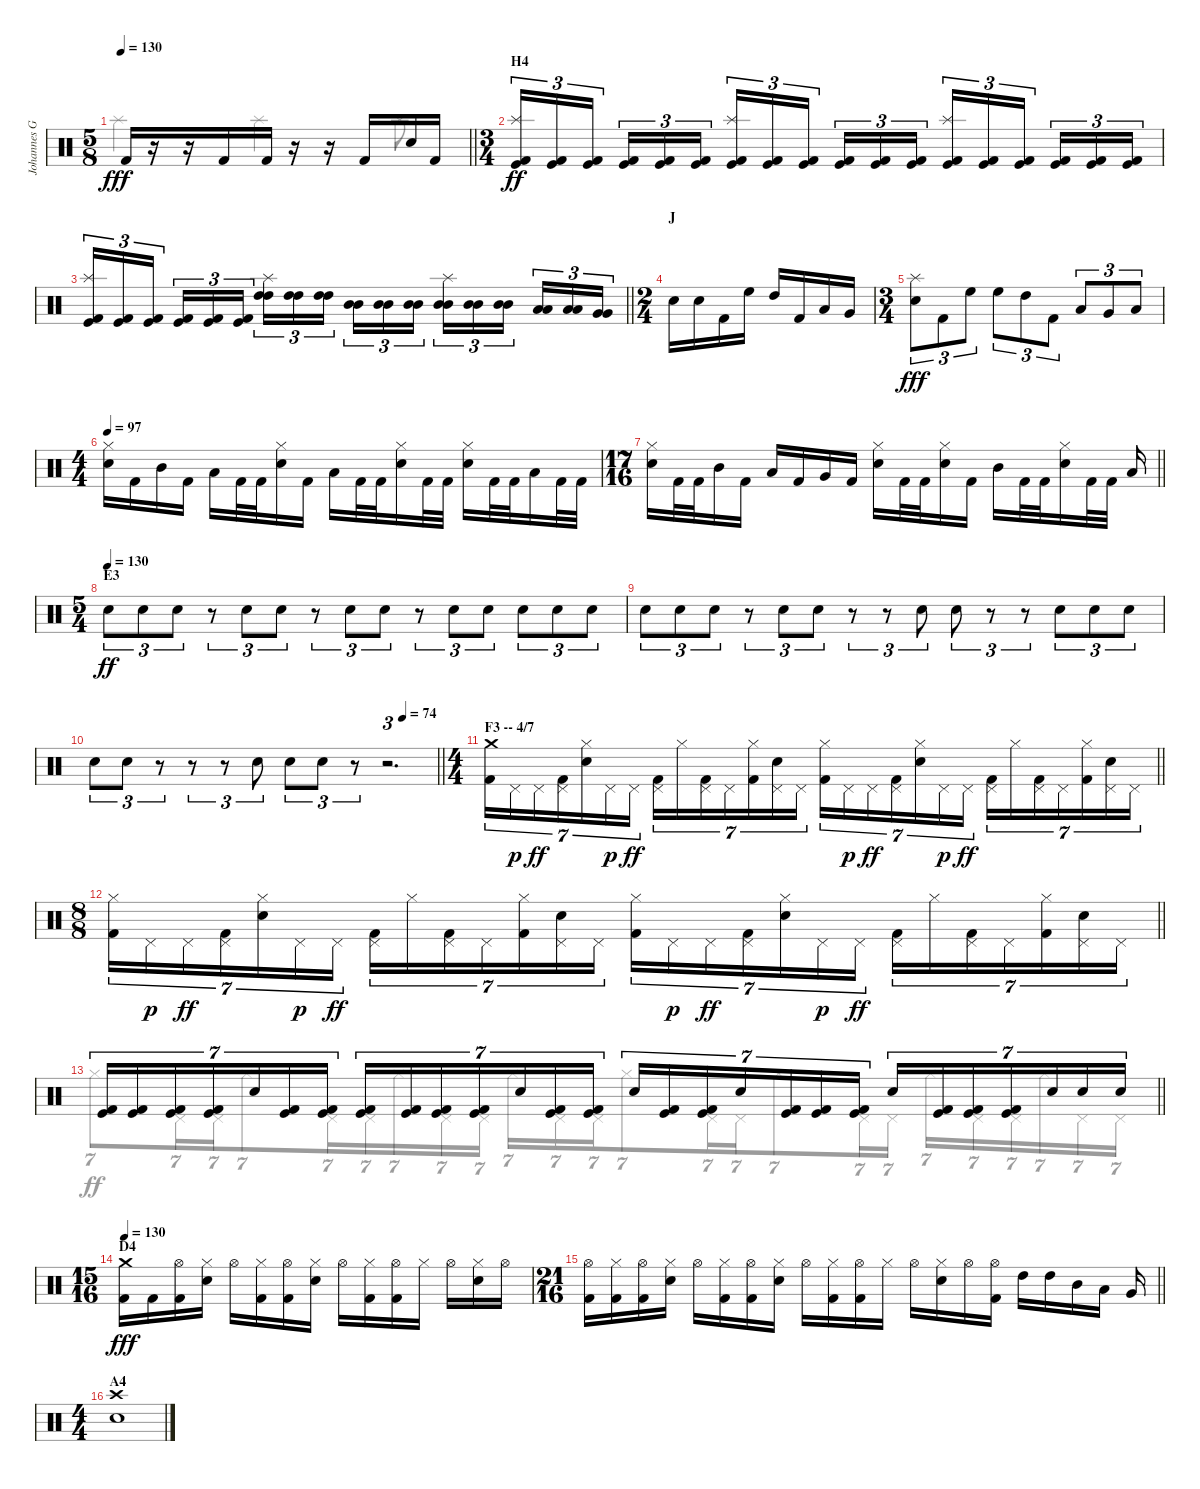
\track ("Johannes Grossmann" "Johannes G") {instrument percussion}
\staff {score}
\articulation defaults
\voice
\ts (5 8)
\tempo 130
\clef neutral
\barLineRight lightlight
\ks c "Kick (hit) 2".16{dy fff}
r.16 r.16 "Kick (hit) 2".16 "Kick (hit) 2".16 r.16 r.16 "Kick (hit) 2".16 "Snare (hit) 2".16 "Kick (hit) 2".16 |
\ts (3 4)
\section ("" "H4")
("Splash (hit)" "Kick (hit)" "Kick (hit) 2").16{tu (3 2) dy ff} ("Kick (hit)" "Kick (hit) 2").16{tu (3 2)} ("Kick (hit)" "Kick (hit) 2").16{tu (3 2) beam splitsecondary} ("Kick (hit)" "Kick (hit) 2").16{tu (3 2)} ("Kick (hit)" "Kick (hit) 2").16{tu (3 2)} ("Kick (hit)" "Kick (hit) 2").16{tu (3 2)} ("Splash (hit)" "Kick (hit)" "Kick (hit) 2").16{tu (3 2)} ("Kick (hit)" "Kick (hit) 2").16{tu (3 2)} ("Kick (hit)" "Kick (hit) 2").16{tu (3 2) beam splitsecondary} ("Kick (hit)" "Kick (hit) 2").16{tu (3 2)} ("Kick (hit)" "Kick (hit) 2").16{tu (3 2)} ("Kick (hit)" "Kick (hit) 2").16{tu (3 2)} ("Splash (hit)" "Kick (hit)" "Kick (hit) 2").16{tu (3 2)} ("Kick (hit)" "Kick (hit) 2").16{tu (3 2)} ("Kick (hit)" "Kick (hit) 2").16{tu (3 2) beam splitsecondary} ("Kick (hit)" "Kick (hit) 2").16{tu (3 2)} ("Kick (hit)" "Kick (hit) 2").16{tu (3 2)} ("Kick (hit)" "Kick (hit) 2").16{tu (3 2)} |
\barLineRight lightlight
("Splash (hit)" "Kick (hit)" "Kick (hit) 2").16{tu (3 2)} ("Kick (hit)" "Kick (hit) 2").16{tu (3 2)} ("Kick (hit)" "Kick (hit) 2").16{tu (3 2) beam splitsecondary} ("Kick (hit)" "Kick (hit) 2").16{tu (3 2)} ("Kick (hit)" "Kick (hit) 2").16{tu (3 2)} ("Kick (hit)" "Kick (hit) 2").16{tu (3 2)} ("Splash (hit)" "High Tom (hit)" "High Tom (hit)").16{tu (3 2)} ("High Tom (hit)" "High Tom (hit)").16{tu (3 2)} ("High Tom (hit)" "High Tom (hit)").16{tu (3 2) beam splitsecondary} ("Mid Tom (hit)" "Mid Tom (hit)").16{tu (3 2)} ("Mid Tom (hit)" "Mid Tom (hit)").16{tu (3 2)} ("Mid Tom (hit)" "Mid Tom (hit)").16{tu (3 2)} ("Splash (hit)" "Mid Tom (hit)" "Mid Tom (hit)").16{tu (3 2)} ("Mid Tom (hit)" "Mid Tom (hit)").16{tu (3 2)} ("Mid Tom (hit)" "Mid Tom (hit)").16{tu (3 2) beam splitsecondary} ("Low Tom (hit)" "Low Tom (hit)").16{tu (3 2)} ("Low Tom (hit)" "Low Tom (hit)").16{tu (3 2)} ("Very Low Tom (hit)" "Very Low Tom (hit)").16{tu (3 2)} |
\ts (2 4)
\section ("" "J")
"Snare (hit) 2".16 "Snare (hit) 2".16 "Kick (hit) 2".16 "High Floor Tom (hit)".16 "High Tom (hit)".16 "Kick (hit) 2".16 "Low Tom (hit)".16 "Very Low Tom (hit)".16 |
\ts (3 4)
("Splash (hit)" "Snare (hit) 2").8{tu (3 2) dy fff} "Kick (hit) 2".8{tu (3 2)} "High Floor Tom (hit)".8{tu (3 2)} "High Floor Tom (hit)".8{tu (3 2)} "High Tom (hit)".8{tu (3 2)} "Kick (hit) 2".8{tu (3 2)} "Low Tom (hit)".8{tu (3 2)} "Very Low Tom (hit)".8{tu (3 2)} "Low Floor Tom (hit)".8{tu (3 2)} |
\ts (4 4)
\tempo 97
("Hi-Hat (closed)" "Snare (hit) 2").16 "Kick (hit) 2".16 "Mid Tom (hit)".16 "Kick (hit) 2".16 "Low Tom (hit)".16 "Kick (hit) 2".32 "Kick (hit) 2".32 ("Hi-Hat (closed)" "Snare (hit) 2").16 "Kick (hit) 2".16 "Low Tom (hit)".16 "Kick (hit) 2".32 "Kick (hit) 2".32 ("Hi-Hat (closed)" "Snare (hit) 2").16 "Kick (hit) 2".32 "Kick (hit) 2".32 ("Hi-Hat (closed)" "Snare (hit) 2").16 "Kick (hit) 2".32 "Kick (hit) 2".32 "Low Tom (hit)".16 "Kick (hit) 2".32 "Kick (hit) 2".32 |
\ts (17 16)
\barLineRight lightlight
("Hi-Hat (closed)" "Snare (hit) 2").16 "Kick (hit) 2".32 "Kick (hit) 2".32 "Mid Tom (hit)".16 "Kick (hit) 2".16 "Low Tom (hit)".16 "Kick (hit) 2".16 "Very Low Tom (hit)".16 "Kick (hit) 2".16 ("Hi-Hat (closed)" "Snare (hit) 2").16 "Kick (hit) 2".32 "Kick (hit) 2".32 ("Hi-Hat (closed)" "Snare (hit) 2").16 "Kick (hit) 2".16 "Mid Tom (hit)".16 "Kick (hit) 2".32 "Kick (hit) 2".32 ("Hi-Hat (closed)" "Snare (hit) 2").16 "Kick (hit) 2".32 "Kick (hit) 2".32 "Low Floor Tom (hit)".16 |
\ts (5 4)
\section ("" "E3")
\tempo (130)
"Snare (hit) 2".8{tu (3 2) dy ff} "Snare (hit) 2".8{tu (3 2)} "Snare (hit) 2".8{tu (3 2)} r.8{tu (3 2)} "Snare (hit) 2".8{tu (3 2)} "Snare (hit) 2".8{tu (3 2)} r.8{tu (3 2)} "Snare (hit) 2".8{tu (3 2)} "Snare (hit) 2".8{tu (3 2)} r.8{tu (3 2)} "Snare (hit) 2".8{tu (3 2)} "Snare (hit) 2".8{tu (3 2)} "Snare (hit) 2".8{tu (3 2)} "Snare (hit) 2".8{tu (3 2)} "Snare (hit) 2".8{tu (3 2)} |
"Snare (hit) 2".8{tu (3 2)} "Snare (hit) 2".8{tu (3 2)} "Snare (hit) 2".8{tu (3 2)} r.8{tu (3 2)} "Snare (hit) 2".8{tu (3 2)} "Snare (hit) 2".8{tu (3 2)} r.8{tu (3 2)} r.8{tu (3 2)} "Snare (hit) 2".8{tu (3 2)} "Snare (hit) 2".8{tu (3 2)} r.8{tu (3 2)} r.8{tu (3 2)} "Snare (hit) 2".8{tu (3 2)} "Snare (hit) 2".8{tu (3 2)} "Snare (hit) 2".8{tu (3 2)} |
\tempo (74 0.9)
\barLineRight lightlight "Snare (hit) 2".8{tu (3 2)} "Snare (hit) 2".8{tu (3 2)}
r.8{tu (3 2)} r.8{tu (3 2)} r.8{tu (3 2)} "Snare (hit) 2".8{tu (3 2)} "Snare (hit) 2".8{tu (3 2)} "Snare (hit) 2".8{tu (3 2)} r.8{tu (3 2)} r.2{d tu (3 2)} |
\ts (4 4)
\section ("" "F3 -- 4/7")
\barLineRight lightlight
("Crash medium (hit)" "Kick (hit) 2").16{tu (7 4)} "Pedal Hi-Hat (hit)".16{tu (7 4) dy p} "Pedal Hi-Hat (hit)".16{tu (7 4) dy ff} ("Pedal Hi-Hat (hit)" "Kick (hit) 2").16{tu (7 4)} ("Hi-Hat (closed)" "Snare (hit) 2").16{tu (7 4)} "Pedal Hi-Hat (hit)".16{tu (7 4) dy p} "Pedal Hi-Hat (hit)".16{tu (7 4) dy ff} ("Pedal Hi-Hat (hit)" "Kick (hit) 2").16{tu (7 4)} "Hi-Hat (closed)".16{tu (7 4)} ("Pedal Hi-Hat (hit)" "Kick (hit) 2").16{tu (7 4)} "Pedal Hi-Hat (hit)".16{tu (7 4)} ("Hi-Hat (closed)" "Kick (hit) 2").16{tu (7 4)} ("Pedal Hi-Hat (hit)" "Snare (hit) 2").16{tu (7 4)} "Pedal Hi-Hat (hit)".16{tu (7 4)} ("Hi-Hat (closed)" "Kick (hit) 2").16{tu (7 4)} "Pedal Hi-Hat (hit)".16{tu (7 4) dy p} "Pedal Hi-Hat (hit)".16{tu (7 4) dy ff} ("Pedal Hi-Hat (hit)" "Kick (hit) 2").16{tu (7 4)} ("Hi-Hat (closed)" "Snare (hit) 2").16{tu (7 4)} "Pedal Hi-Hat (hit)".16{tu (7 4) dy p} "Pedal Hi-Hat (hit)".16{tu (7 4) dy ff} ("Pedal Hi-Hat (hit)" "Kick (hit) 2").16{tu (7 4)} "Hi-Hat (closed)".16{tu (7 4)} ("Pedal Hi-Hat (hit)" "Kick (hit) 2").16{tu (7 4)} "Pedal Hi-Hat (hit)".16{tu (7 4)} ("Hi-Hat (closed)" "Kick (hit) 2").16{tu (7 4)} ("Pedal Hi-Hat (hit)" "Snare (hit) 2").16{tu (7 4)} "Pedal Hi-Hat (hit)".16{tu (7 4)} |
\ts (8 8)
\barLineRight lightlight
("Hi-Hat (closed)" "Kick (hit) 2").16{tu (7 4)} "Pedal Hi-Hat (hit)".16{tu (7 4) dy p} "Pedal Hi-Hat (hit)".16{tu (7 4) dy ff} ("Pedal Hi-Hat (hit)" "Kick (hit) 2").16{tu (7 4)} ("Hi-Hat (closed)" "Snare (hit) 2").16{tu (7 4)} "Pedal Hi-Hat (hit)".16{tu (7 4) dy p} "Pedal Hi-Hat (hit)".16{tu (7 4) dy ff} ("Pedal Hi-Hat (hit)" "Kick (hit) 2").16{tu (7 4)} "Hi-Hat (closed)".16{tu (7 4)} ("Pedal Hi-Hat (hit)" "Kick (hit) 2").16{tu (7 4)} "Pedal Hi-Hat (hit)".16{tu (7 4)} ("Hi-Hat (closed)" "Kick (hit) 2").16{tu (7 4)} ("Pedal Hi-Hat (hit)" "Snare (hit) 2").16{tu (7 4)} "Pedal Hi-Hat (hit)".16{tu (7 4)} ("Hi-Hat (closed)" "Kick (hit) 2").16{tu (7 4)} "Pedal Hi-Hat (hit)".16{tu (7 4) dy p} "Pedal Hi-Hat (hit)".16{tu (7 4) dy ff} ("Pedal Hi-Hat (hit)" "Kick (hit) 2").16{tu (7 4)} ("Hi-Hat (closed)" "Snare (hit) 2").16{tu (7 4)} "Pedal Hi-Hat (hit)".16{tu (7 4) dy p} "Pedal Hi-Hat (hit)".16{tu (7 4) dy ff} ("Pedal Hi-Hat (hit)" "Kick (hit) 2").16{tu (7 4)} "Hi-Hat (closed)".16{tu (7 4)} ("Pedal Hi-Hat (hit)" "Kick (hit) 2").16{tu (7 4)} "Pedal Hi-Hat (hit)".16{tu (7 4)} ("Hi-Hat (closed)" "Kick (hit) 2").16{tu (7 4)} ("Pedal Hi-Hat (hit)" "Snare (hit) 2").16{tu (7 4)} "Pedal Hi-Hat (hit)".16{tu (7 4)} |
\barLineRight lightlight
("Kick (hit)" "Kick (hit) 2").16{tu (7 4)} ("Kick (hit)" "Kick (hit) 2").16{tu (7 4)} ("Kick (hit)" "Kick (hit) 2").16{tu (7 4)} ("Kick (hit)" "Kick (hit) 2").16{tu (7 4)} "Snare (hit) 2".16{tu (7 4)} ("Kick (hit)" "Kick (hit) 2").16{tu (7 4)} ("Kick (hit)" "Kick (hit) 2").16{tu (7 4)} ("Kick (hit)" "Kick (hit) 2").16{tu (7 4)} ("Kick (hit)" "Kick (hit) 2").16{tu (7 4)} ("Kick (hit)" "Kick (hit) 2").16{tu (7 4)} ("Kick (hit)" "Kick (hit) 2").16{tu (7 4)} "Snare (hit) 2".16{tu (7 4)} ("Kick (hit)" "Kick (hit) 2").16{tu (7 4)} ("Kick (hit)" "Kick (hit) 2").16{tu (7 4)} "Snare (hit) 2".16{tu (7 4)} ("Kick (hit)" "Kick (hit) 2").16{tu (7 4)} ("Kick (hit)" "Kick (hit) 2").16{tu (7 4)} "Snare (hit) 2".16{tu (7 4)} ("Kick (hit)" "Kick (hit) 2").16{tu (7 4)} ("Kick (hit)" "Kick (hit) 2").16{tu (7 4)} ("Kick (hit)" "Kick (hit) 2").16{tu (7 4)} "Snare (hit) 2".16{tu (7 4)} ("Kick (hit)" "Kick (hit) 2").16{tu (7 4)} ("Kick (hit)" "Kick (hit) 2").16{tu (7 4)} ("Kick (hit)" "Kick (hit) 2").16{tu (7 4)} "Snare (hit) 2".16{tu (7 4)} "Snare (hit) 2".16{tu (7 4)} "Snare (hit) 2".16{tu (7 4)} |
\ts (15 16)
\section ("" "D4")
\tempo 130
("Crash medium (hit)" "Kick (hit) 2").16{dy fff} "Kick (hit) 2".16 ("Hi-Hat (open)" "Kick (hit) 2").16 ("Hi-Hat (closed)" "Snare (hit) 2").16 "Hi-Hat (open)".16 ("Hi-Hat (closed)" "Kick (hit) 2").16 ("Hi-Hat (open)" "Kick (hit) 2").16 ("Hi-Hat (closed)" "Snare (hit) 2").16 "Hi-Hat (open)".16 ("Hi-Hat (closed)" "Kick (hit) 2").16 ("Hi-Hat (open)" "Kick (hit) 2").16 "Hi-Hat (closed)".16 "Hi-Hat (open)".16 ("Hi-Hat (closed)" "Snare (hit) 2").16 "Hi-Hat (open)".16 |
\ts (21 16)
\barLineRight lightlight
("Hi-Hat (open)" "Kick (hit) 2").16 ("Hi-Hat (closed)" "Kick (hit) 2").16 ("Hi-Hat (open)" "Kick (hit) 2").16 ("Hi-Hat (closed)" "Snare (hit) 2").16 "Hi-Hat (open)".16 ("Hi-Hat (closed)" "Kick (hit) 2").16 ("Hi-Hat (open)" "Kick (hit) 2").16 ("Hi-Hat (closed)" "Snare (hit) 2").16 "Hi-Hat (open)".16 ("Hi-Hat (closed)" "Kick (hit) 2").16 ("Hi-Hat (open)" "Kick (hit) 2").16 "Hi-Hat (closed)".16 "Hi-Hat (open)".16 ("Hi-Hat (closed)" "Snare (hit) 2").16 "Hi-Hat (open)".16 ("Hi-Hat (open)" "Kick (hit) 2").16 "High Tom (hit)".16 "High Tom (hit)".16 "Mid Tom (hit)".16 "Low Tom (hit)".16 "Very Low Tom (hit)".16 |
\ts (4 4)
\section ("" "A4")
("Crash high (hit)" "Snare (hit) 2").1
\voice
\clef neutral
\ottava regular
\simile none
\barLineRight lightlight
\ks c "Splash (hit)".4{dy fff} "Splash (hit)".4 "Splash (hit)".8
|
|
\barLineRight lightlight
|
|
|
|
\barLineRight lightlight
|
|
|
\barLineRight lightlight
|
\barLineRight lightlight
|
\barLineRight lightlight
|
\barLineRight lightlight "Hi-Hat (closed)".8{tu (7 4) dy ff} "Pedal Hi-Hat (hit)".16{tu (7 4)} "Pedal Hi-Hat (hit)".16{tu (7 4)} "Hi-Hat (closed)".8{tu (7 4)} "Pedal Hi-Hat (hit)".16{tu (7 4)} "Pedal Hi-Hat (hit)".16{tu (7 4)} "Hi-Hat (closed)".16{tu (7 4)} "Pedal Hi-Hat (hit)".16{tu (7 4)} "Pedal Hi-Hat (hit)".16{tu (7 4)} "Hi-Hat (closed)".16{tu (7 4)} "Pedal Hi-Hat (hit)".16{tu (7 4)} "Pedal Hi-Hat (hit)".16{tu (7 4)} "Hi-Hat (closed)".8{tu (7 4)} "Pedal Hi-Hat (hit)".16{tu (7 4)} "Pedal Hi-Hat (hit)".16{tu (7 4)} "Hi-Hat (closed)".8{tu (7 4)} "Pedal Hi-Hat (hit)".16{tu (7 4)} "Pedal Hi-Hat (hit)".16{tu (7 4)} "Hi-Hat (closed)".16{tu (7 4)} "Pedal Hi-Hat (hit)".16{tu (7 4)} "Pedal Hi-Hat (hit)".16{tu (7 4)} "Hi-Hat (closed)".16{tu (7 4)} "Pedal Hi-Hat (hit)".16{tu (7 4)} "Pedal Hi-Hat (hit)".16{tu (7 4)}
|
|
\barLineRight lightlight
|
